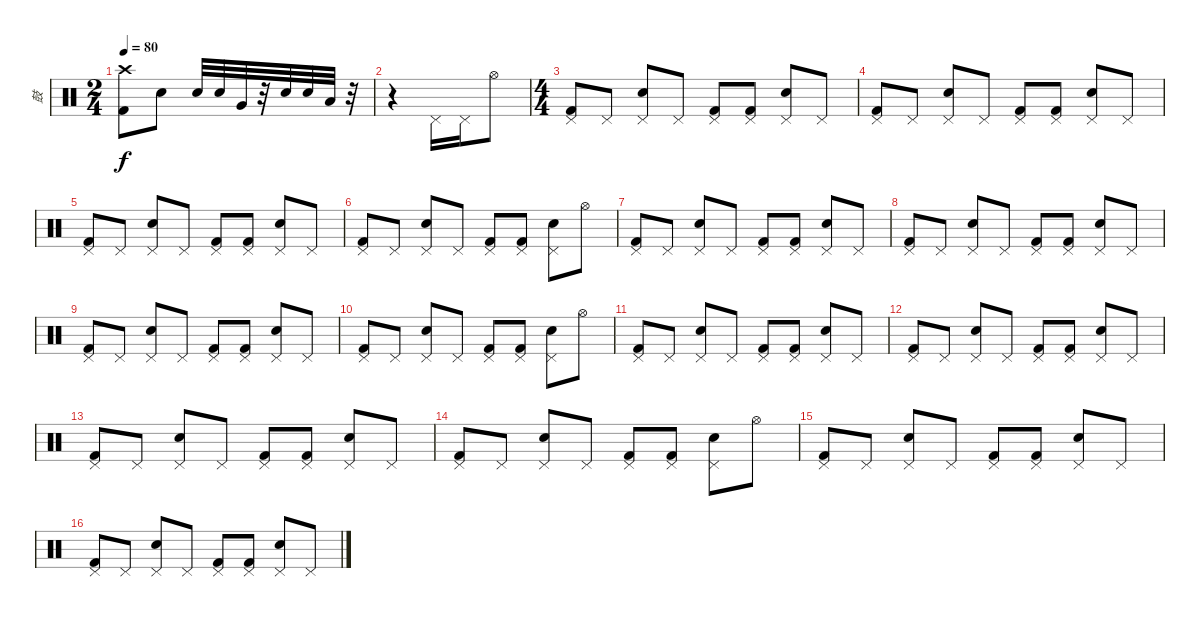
\track ("鼓" "鼓") {instrument percussion}
\staff {score}
\articulation defaults
\ts (2 4)
\tempo 80
\clef neutral
\ks c
("Crash high (hit)" "Kick (hit) 2").8{dy f} "Electric Snare (hit)".8 "Electric Snare (hit)".32 "Electric Snare (hit)".32 "Very Low Tom (hit)".32 r.32 "Electric Snare (hit)".32 "Electric Snare (hit)".32 "Low Floor Tom (hit)".32 r.32 |
r.4 "Pedal Hi-Hat (hit)".16 "Pedal Hi-Hat (hit)".16 "Hi-Hat (open)".8 |
\ts (4 4)
("Pedal Hi-Hat (hit)" "Kick (hit) 2").8 "Pedal Hi-Hat (hit)".8 ("Pedal Hi-Hat (hit)" "Electric Snare (hit)").8 "Pedal Hi-Hat (hit)".8 ("Pedal Hi-Hat (hit)" "Kick (hit) 2").8 ("Pedal Hi-Hat (hit)" "Kick (hit) 2").8 ("Pedal Hi-Hat (hit)" "Electric Snare (hit)").8 "Pedal Hi-Hat (hit)".8 |
("Pedal Hi-Hat (hit)" "Kick (hit) 2").8 "Pedal Hi-Hat (hit)".8 ("Pedal Hi-Hat (hit)" "Electric Snare (hit)").8 "Pedal Hi-Hat (hit)".8 ("Pedal Hi-Hat (hit)" "Kick (hit) 2").8 ("Pedal Hi-Hat (hit)" "Kick (hit) 2").8 ("Pedal Hi-Hat (hit)" "Electric Snare (hit)").8 "Pedal Hi-Hat (hit)".8 |
("Pedal Hi-Hat (hit)" "Kick (hit) 2").8 "Pedal Hi-Hat (hit)".8 ("Pedal Hi-Hat (hit)" "Electric Snare (hit)").8 "Pedal Hi-Hat (hit)".8 ("Pedal Hi-Hat (hit)" "Kick (hit) 2").8 ("Pedal Hi-Hat (hit)" "Kick (hit) 2").8 ("Pedal Hi-Hat (hit)" "Electric Snare (hit)").8 "Pedal Hi-Hat (hit)".8 |
("Pedal Hi-Hat (hit)" "Kick (hit) 2").8 "Pedal Hi-Hat (hit)".8 ("Pedal Hi-Hat (hit)" "Electric Snare (hit)").8 "Pedal Hi-Hat (hit)".8 ("Pedal Hi-Hat (hit)" "Kick (hit) 2").8 ("Pedal Hi-Hat (hit)" "Kick (hit) 2").8 ("Pedal Hi-Hat (hit)" "Electric Snare (hit)").8 "Hi-Hat (open)".8 |
("Pedal Hi-Hat (hit)" "Kick (hit) 2").8 "Pedal Hi-Hat (hit)".8 ("Pedal Hi-Hat (hit)" "Electric Snare (hit)").8 "Pedal Hi-Hat (hit)".8 ("Pedal Hi-Hat (hit)" "Kick (hit) 2").8 ("Pedal Hi-Hat (hit)" "Kick (hit) 2").8 ("Pedal Hi-Hat (hit)" "Electric Snare (hit)").8 "Pedal Hi-Hat (hit)".8 |
("Pedal Hi-Hat (hit)" "Kick (hit) 2").8 "Pedal Hi-Hat (hit)".8 ("Pedal Hi-Hat (hit)" "Electric Snare (hit)").8 "Pedal Hi-Hat (hit)".8 ("Pedal Hi-Hat (hit)" "Kick (hit) 2").8 ("Pedal Hi-Hat (hit)" "Kick (hit) 2").8 ("Pedal Hi-Hat (hit)" "Electric Snare (hit)").8 "Pedal Hi-Hat (hit)".8 |
("Pedal Hi-Hat (hit)" "Kick (hit) 2").8 "Pedal Hi-Hat (hit)".8 ("Pedal Hi-Hat (hit)" "Electric Snare (hit)").8 "Pedal Hi-Hat (hit)".8 ("Pedal Hi-Hat (hit)" "Kick (hit) 2").8 ("Pedal Hi-Hat (hit)" "Kick (hit) 2").8 ("Pedal Hi-Hat (hit)" "Electric Snare (hit)").8 "Pedal Hi-Hat (hit)".8 |
("Pedal Hi-Hat (hit)" "Kick (hit) 2").8 "Pedal Hi-Hat (hit)".8 ("Pedal Hi-Hat (hit)" "Electric Snare (hit)").8 "Pedal Hi-Hat (hit)".8 ("Pedal Hi-Hat (hit)" "Kick (hit) 2").8 ("Pedal Hi-Hat (hit)" "Kick (hit) 2").8 ("Pedal Hi-Hat (hit)" "Electric Snare (hit)").8 "Hi-Hat (open)".8 |
("Pedal Hi-Hat (hit)" "Kick (hit) 2").8 "Pedal Hi-Hat (hit)".8 ("Pedal Hi-Hat (hit)" "Electric Snare (hit)").8 "Pedal Hi-Hat (hit)".8 ("Pedal Hi-Hat (hit)" "Kick (hit) 2").8 ("Pedal Hi-Hat (hit)" "Kick (hit) 2").8 ("Pedal Hi-Hat (hit)" "Electric Snare (hit)").8 "Pedal Hi-Hat (hit)".8 |
("Pedal Hi-Hat (hit)" "Kick (hit) 2").8 "Pedal Hi-Hat (hit)".8 ("Pedal Hi-Hat (hit)" "Electric Snare (hit)").8 "Pedal Hi-Hat (hit)".8 ("Pedal Hi-Hat (hit)" "Kick (hit) 2").8 ("Pedal Hi-Hat (hit)" "Kick (hit) 2").8 ("Pedal Hi-Hat (hit)" "Electric Snare (hit)").8 "Pedal Hi-Hat (hit)".8 |
("Pedal Hi-Hat (hit)" "Kick (hit) 2").8 "Pedal Hi-Hat (hit)".8 ("Pedal Hi-Hat (hit)" "Electric Snare (hit)").8 "Pedal Hi-Hat (hit)".8 ("Pedal Hi-Hat (hit)" "Kick (hit) 2").8 ("Pedal Hi-Hat (hit)" "Kick (hit) 2").8 ("Pedal Hi-Hat (hit)" "Electric Snare (hit)").8 "Pedal Hi-Hat (hit)".8 |
("Pedal Hi-Hat (hit)" "Kick (hit) 2").8 "Pedal Hi-Hat (hit)".8 ("Pedal Hi-Hat (hit)" "Electric Snare (hit)").8 "Pedal Hi-Hat (hit)".8 ("Pedal Hi-Hat (hit)" "Kick (hit) 2").8 ("Pedal Hi-Hat (hit)" "Kick (hit) 2").8 ("Pedal Hi-Hat (hit)" "Electric Snare (hit)").8 "Hi-Hat (open)".8 |
("Pedal Hi-Hat (hit)" "Kick (hit) 2").8 "Pedal Hi-Hat (hit)".8 ("Pedal Hi-Hat (hit)" "Electric Snare (hit)").8 "Pedal Hi-Hat (hit)".8 ("Pedal Hi-Hat (hit)" "Kick (hit) 2").8 ("Pedal Hi-Hat (hit)" "Kick (hit) 2").8 ("Pedal Hi-Hat (hit)" "Electric Snare (hit)").8 "Pedal Hi-Hat (hit)".8 |
("Pedal Hi-Hat (hit)" "Kick (hit) 2").8 "Pedal Hi-Hat (hit)".8 ("Pedal Hi-Hat (hit)" "Electric Snare (hit)").8 "Pedal Hi-Hat (hit)".8 ("Pedal Hi-Hat (hit)" "Kick (hit) 2").8 ("Pedal Hi-Hat (hit)" "Kick (hit) 2").8 ("Pedal Hi-Hat (hit)" "Electric Snare (hit)").8 "Pedal Hi-Hat (hit)".8
